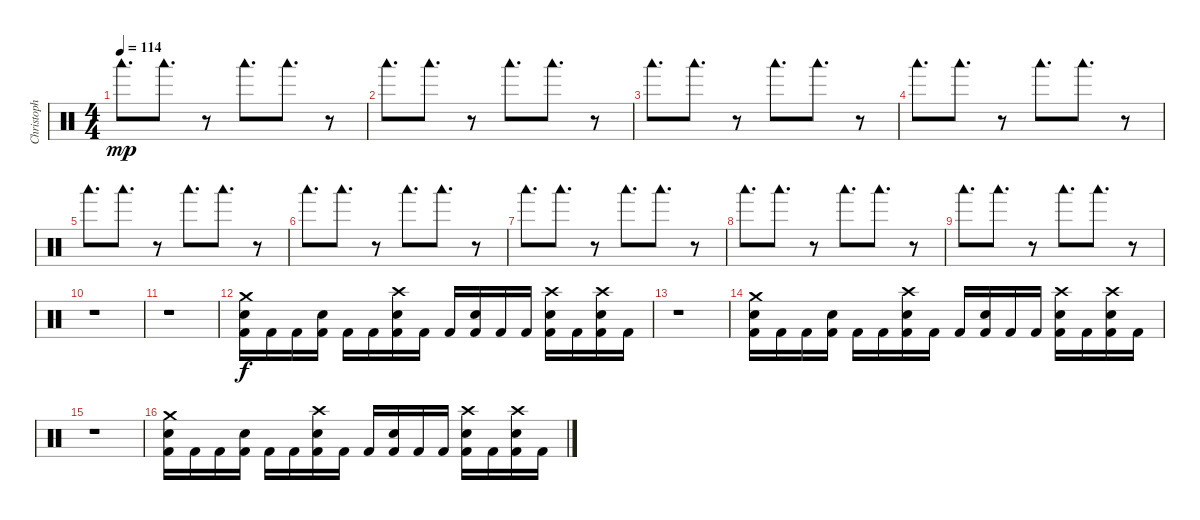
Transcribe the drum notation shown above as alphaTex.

\track ("Christoph Schneider [Drums]" "Christoph ") {instrument percussion}
\staff {score}
\articulation defaults
\ts (4 4)
\tempo 114
\clef neutral
\ks c "Woodblock low (hit)".8{d dy mp} "Woodblock low (hit)".8{d}
r.8 "Woodblock low (hit)".8{d} "Woodblock low (hit)".8{d} r.8 |
"Woodblock low (hit)".8{d} "Woodblock low (hit)".8{d} r.8 "Woodblock low (hit)".8{d} "Woodblock low (hit)".8{d} r.8 |
"Woodblock low (hit)".8{d} "Woodblock low (hit)".8{d} r.8 "Woodblock low (hit)".8{d} "Woodblock low (hit)".8{d} r.8 |
"Woodblock low (hit)".8{d} "Woodblock low (hit)".8{d} r.8 "Woodblock low (hit)".8{d} "Woodblock low (hit)".8{d} r.8 |
"Woodblock low (hit)".8{d} "Woodblock low (hit)".8{d} r.8 "Woodblock low (hit)".8{d} "Woodblock low (hit)".8{d} r.8 |
"Woodblock low (hit)".8{d} "Woodblock low (hit)".8{d} r.8 "Woodblock low (hit)".8{d} "Woodblock low (hit)".8{d} r.8 |
"Woodblock low (hit)".8{d} "Woodblock low (hit)".8{d} r.8 "Woodblock low (hit)".8{d} "Woodblock low (hit)".8{d} r.8 |
"Woodblock low (hit)".8{d} "Woodblock low (hit)".8{d} r.8 "Woodblock low (hit)".8{d} "Woodblock low (hit)".8{d} r.8 |
"Woodblock low (hit)".8{d} "Woodblock low (hit)".8{d} r.8 "Woodblock low (hit)".8{d} "Woodblock low (hit)".8{d} r.8 |
r.1 |
r.1 |
("Crash medium (hit)" "Electric Snare (hit)" "Kick (hit) 2").16{dy f} "Kick (hit) 2".16 "Kick (hit) 2".16 ("Electric Snare (hit)" "Kick (hit) 2").16 "Kick (hit) 2".16 "Kick (hit) 2".16 ("Crash high (hit)" "Electric Snare (hit)" "Kick (hit) 2").16 "Kick (hit) 2".16 "Kick (hit) 2".16 ("Electric Snare (hit)" "Kick (hit) 2").16 "Kick (hit) 2".16 "Kick (hit) 2".16 ("Crash high (hit)" "Electric Snare (hit)" "Kick (hit) 2").16 "Kick (hit) 2".16 ("Crash high (hit)" "Electric Snare (hit)" "Kick (hit) 2").16 "Kick (hit) 2".16 |
r.1 |
("Crash medium (hit)" "Electric Snare (hit)" "Kick (hit) 2").16 "Kick (hit) 2".16 "Kick (hit) 2".16 ("Electric Snare (hit)" "Kick (hit) 2").16 "Kick (hit) 2".16 "Kick (hit) 2".16 ("Crash high (hit)" "Electric Snare (hit)" "Kick (hit) 2").16 "Kick (hit) 2".16 "Kick (hit) 2".16 ("Electric Snare (hit)" "Kick (hit) 2").16 "Kick (hit) 2".16 "Kick (hit) 2".16 ("Crash high (hit)" "Electric Snare (hit)" "Kick (hit) 2").16 "Kick (hit) 2".16 ("Crash high (hit)" "Electric Snare (hit)" "Kick (hit) 2").16 "Kick (hit) 2".16 |
r.1 |
("Crash medium (hit)" "Electric Snare (hit)" "Kick (hit) 2").16 "Kick (hit) 2".16 "Kick (hit) 2".16 ("Electric Snare (hit)" "Kick (hit) 2").16 "Kick (hit) 2".16 "Kick (hit) 2".16 ("Crash high (hit)" "Electric Snare (hit)" "Kick (hit) 2").16 "Kick (hit) 2".16 "Kick (hit) 2".16 ("Electric Snare (hit)" "Kick (hit) 2").16 "Kick (hit) 2".16 "Kick (hit) 2".16 ("Crash high (hit)" "Electric Snare (hit)" "Kick (hit) 2").16 "Kick (hit) 2".16 ("Crash high (hit)" "Electric Snare (hit)" "Kick (hit) 2").16 "Kick (hit) 2".16
